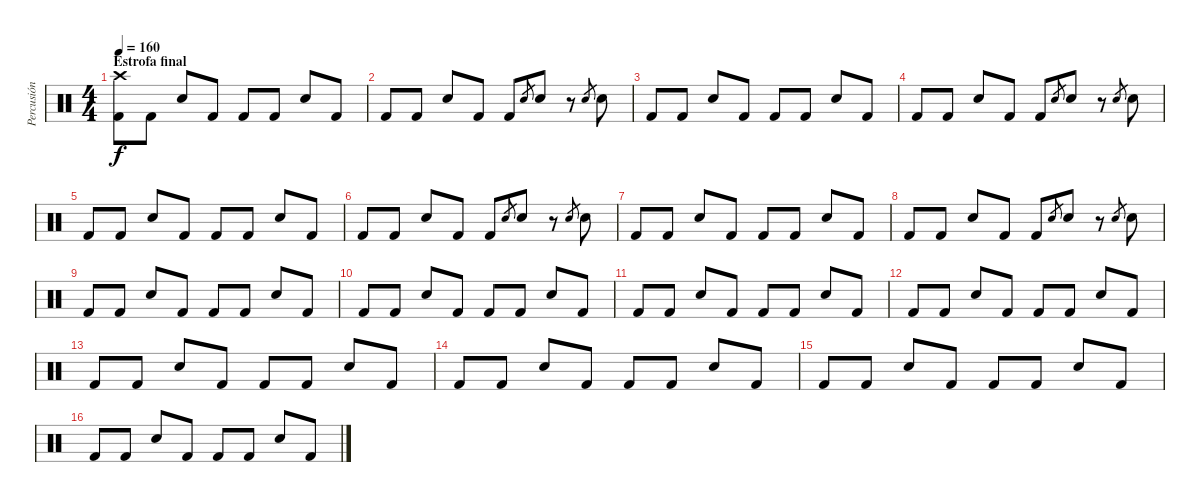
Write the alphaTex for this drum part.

\track ("Percusión" "Percusión") {instrument percussion}
\staff {score}
\articulation defaults
\ts (4 4)
\section ("" "Estrofa final")
\tempo 160
\clef neutral
\ks c
("Kick (hit) 2" "Crash high (hit)").8{dy f} "Kick (hit) 2".8 "Electric Snare (hit)".8 "Kick (hit) 2".8 "Kick (hit) 2".8 "Kick (hit) 2".8 "Electric Snare (hit)".8 "Kick (hit) 2".8 |
"Kick (hit) 2".8 "Kick (hit) 2".8 "Electric Snare (hit)".8 "Kick (hit) 2".8 "Kick (hit) 2".8 "Snare (hit) 2".8{gr} "Electric Snare (hit)".8 r.8 "Snare (hit) 2".8{gr} "Electric Snare (hit)".8 |
"Kick (hit) 2".8 "Kick (hit) 2".8 "Electric Snare (hit)".8 "Kick (hit) 2".8 "Kick (hit) 2".8 "Kick (hit) 2".8 "Electric Snare (hit)".8 "Kick (hit) 2".8 |
"Kick (hit) 2".8 "Kick (hit) 2".8 "Electric Snare (hit)".8 "Kick (hit) 2".8 "Kick (hit) 2".8 "Snare (hit) 2".8{gr} "Electric Snare (hit)".8 r.8 "Snare (hit) 2".8{gr} "Electric Snare (hit)".8 |
"Kick (hit) 2".8 "Kick (hit) 2".8 "Electric Snare (hit)".8 "Kick (hit) 2".8 "Kick (hit) 2".8 "Kick (hit) 2".8 "Electric Snare (hit)".8 "Kick (hit) 2".8 |
"Kick (hit) 2".8 "Kick (hit) 2".8 "Electric Snare (hit)".8 "Kick (hit) 2".8 "Kick (hit) 2".8 "Snare (hit) 2".8{gr} "Electric Snare (hit)".8 r.8 "Snare (hit) 2".8{gr} "Electric Snare (hit)".8 |
"Kick (hit) 2".8 "Kick (hit) 2".8 "Electric Snare (hit)".8 "Kick (hit) 2".8 "Kick (hit) 2".8 "Kick (hit) 2".8 "Electric Snare (hit)".8 "Kick (hit) 2".8 |
"Kick (hit) 2".8 "Kick (hit) 2".8 "Electric Snare (hit)".8 "Kick (hit) 2".8 "Kick (hit) 2".8 "Snare (hit) 2".8{gr} "Electric Snare (hit)".8 r.8 "Snare (hit) 2".8{gr} "Electric Snare (hit)".8 |
"Kick (hit) 2".8 "Kick (hit) 2".8 "Electric Snare (hit)".8 "Kick (hit) 2".8 "Kick (hit) 2".8 "Kick (hit) 2".8 "Electric Snare (hit)".8 "Kick (hit) 2".8 |
"Kick (hit) 2".8 "Kick (hit) 2".8 "Electric Snare (hit)".8 "Kick (hit) 2".8 "Kick (hit) 2".8 "Kick (hit) 2".8 "Electric Snare (hit)".8 "Kick (hit) 2".8 |
"Kick (hit) 2".8 "Kick (hit) 2".8 "Electric Snare (hit)".8 "Kick (hit) 2".8 "Kick (hit) 2".8 "Kick (hit) 2".8 "Electric Snare (hit)".8 "Kick (hit) 2".8 |
"Kick (hit) 2".8 "Kick (hit) 2".8 "Electric Snare (hit)".8 "Kick (hit) 2".8 "Kick (hit) 2".8 "Kick (hit) 2".8 "Electric Snare (hit)".8 "Kick (hit) 2".8 |
"Kick (hit) 2".8 "Kick (hit) 2".8 "Electric Snare (hit)".8 "Kick (hit) 2".8 "Kick (hit) 2".8 "Kick (hit) 2".8 "Electric Snare (hit)".8 "Kick (hit) 2".8 |
"Kick (hit) 2".8 "Kick (hit) 2".8 "Electric Snare (hit)".8 "Kick (hit) 2".8 "Kick (hit) 2".8 "Kick (hit) 2".8 "Electric Snare (hit)".8 "Kick (hit) 2".8 |
"Kick (hit) 2".8 "Kick (hit) 2".8 "Electric Snare (hit)".8 "Kick (hit) 2".8 "Kick (hit) 2".8 "Kick (hit) 2".8 "Electric Snare (hit)".8 "Kick (hit) 2".8 |
"Kick (hit) 2".8 "Kick (hit) 2".8 "Electric Snare (hit)".8 "Kick (hit) 2".8 "Kick (hit) 2".8 "Kick (hit) 2".8 "Electric Snare (hit)".8 "Kick (hit) 2".8
